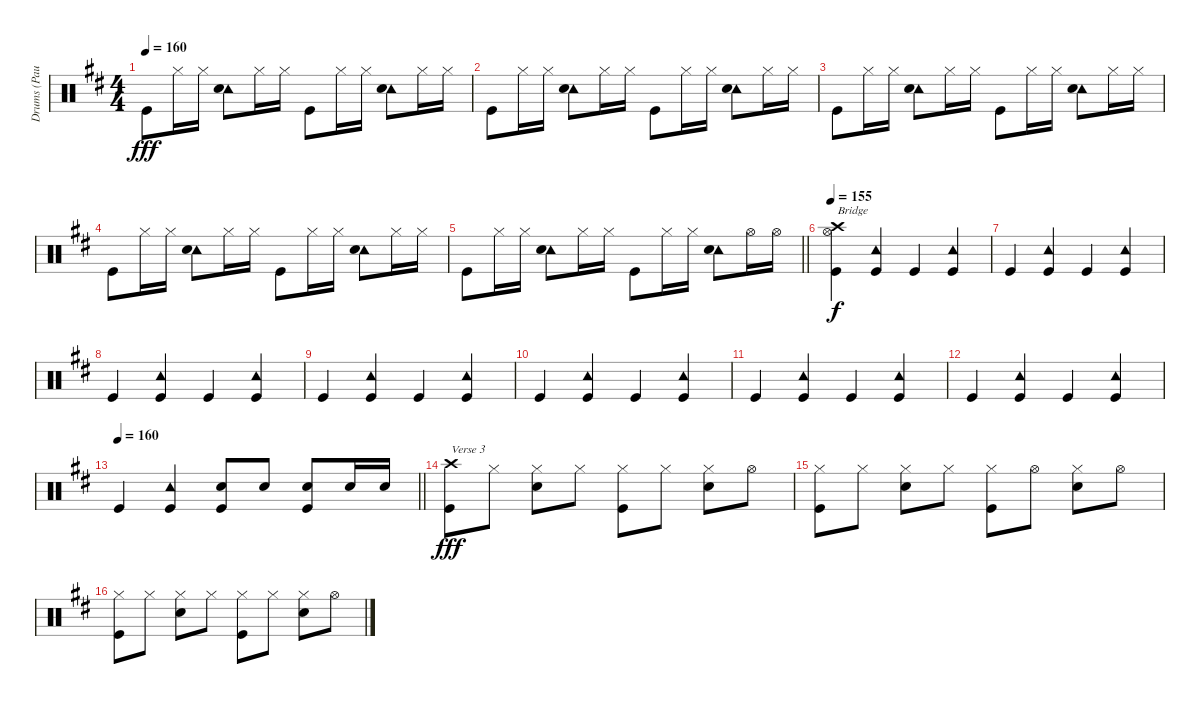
\track ("Drums (Paul)" "Drums (Pau") {instrument percussion}
\staff {score}
\articulation defaults
\ts (4 4)
\tempo 160
\clef neutral
\ks d "Kick (hit)".8{dy fff} "Hi-Hat (closed)".16 "Hi-Hat (closed)".16
("Tambourine (hit)" "Snare (hit) 2").8 "Hi-Hat (closed)".16 "Hi-Hat (closed)".16 "Kick (hit)".8 "Hi-Hat (closed)".16 "Hi-Hat (closed)".16 ("Tambourine (hit)" "Snare (hit) 2").8 "Hi-Hat (closed)".16 "Hi-Hat (closed)".16 |
"Kick (hit)".8 "Hi-Hat (closed)".16 "Hi-Hat (closed)".16 ("Tambourine (hit)" "Snare (hit) 2").8 "Hi-Hat (closed)".16 "Hi-Hat (closed)".16 "Kick (hit)".8 "Hi-Hat (closed)".16 "Hi-Hat (closed)".16 ("Tambourine (hit)" "Snare (hit) 2").8 "Hi-Hat (closed)".16 "Hi-Hat (closed)".16 |
"Kick (hit)".8 "Hi-Hat (closed)".16 "Hi-Hat (closed)".16 ("Tambourine (hit)" "Snare (hit) 2").8 "Hi-Hat (closed)".16 "Hi-Hat (closed)".16 "Kick (hit)".8 "Hi-Hat (closed)".16 "Hi-Hat (closed)".16 ("Tambourine (hit)" "Snare (hit) 2").8 "Hi-Hat (closed)".16 "Hi-Hat (closed)".16 |
"Kick (hit)".8 "Hi-Hat (closed)".16 "Hi-Hat (closed)".16 ("Tambourine (hit)" "Snare (hit) 2").8 "Hi-Hat (closed)".16 "Hi-Hat (closed)".16 "Kick (hit)".8 "Hi-Hat (closed)".16 "Hi-Hat (closed)".16 ("Tambourine (hit)" "Snare (hit) 2").8 "Hi-Hat (closed)".16 "Hi-Hat (closed)".16 |
\barLineRight lightlight "Kick (hit)".8 "Hi-Hat (closed)".16 "Hi-Hat (closed)".16
("Tambourine (hit)" "Snare (hit) 2").8 "Hi-Hat (closed)".16 "Hi-Hat (closed)".16 "Kick (hit)".8 "Hi-Hat (closed)".16 "Hi-Hat (closed)".16 ("Tambourine (hit)" "Snare (hit) 2").8 "Hi-Hat (open)".16 "Hi-Hat (open)".16 |
\tempo 155
("Crash high (hit)" "Hi-Hat (open)" "Kick (hit)").4{txt "Bridge" dy f} ("Tambourine (hit)" "Kick (hit)").4 "Kick (hit)".4 ("Tambourine (hit)" "Kick (hit)").4 |
"Kick (hit)".4 ("Tambourine (hit)" "Kick (hit)").4 "Kick (hit)".4 ("Tambourine (hit)" "Kick (hit)").4 |
"Kick (hit)".4 ("Tambourine (hit)" "Kick (hit)").4 "Kick (hit)".4 ("Tambourine (hit)" "Kick (hit)").4 |
"Kick (hit)".4 ("Tambourine (hit)" "Kick (hit)").4 "Kick (hit)".4 ("Tambourine (hit)" "Kick (hit)").4 |
"Kick (hit)".4 ("Tambourine (hit)" "Kick (hit)").4 "Kick (hit)".4 ("Tambourine (hit)" "Kick (hit)").4 |
"Kick (hit)".4 ("Tambourine (hit)" "Kick (hit)").4 "Kick (hit)".4 ("Tambourine (hit)" "Kick (hit)").4 |
"Kick (hit)".4 ("Tambourine (hit)" "Kick (hit)").4 "Kick (hit)".4 ("Tambourine (hit)" "Kick (hit)").4 |
\tempo 160
\barLineRight lightlight "Kick (hit)".4
("Tambourine (hit)" "Kick (hit)").4 ("Snare (hit) 2" "Kick (hit)").8 "Snare (hit) 2".8 ("Snare (hit) 2" "Kick (hit)").8 "Snare (hit) 2".16 "Snare (hit) 2".16 |
("Crash high (hit)" "Kick (hit)").8{txt "Verse 3" dy fff} "Hi-Hat (closed)".8 ("Hi-Hat (closed)" "Electric Snare (hit)").8 "Hi-Hat (closed)".8 ("Hi-Hat (closed)" "Kick (hit)").8 "Hi-Hat (closed)".8 ("Hi-Hat (closed)" "Electric Snare (hit)").8 "Hi-Hat (open)".8 |
("Hi-Hat (closed)" "Kick (hit)").8 "Hi-Hat (closed)".8 ("Hi-Hat (closed)" "Electric Snare (hit)").8 "Hi-Hat (closed)".8 ("Hi-Hat (closed)" "Kick (hit)").8 "Hi-Hat (open)".8 ("Hi-Hat (closed)" "Electric Snare (hit)").8 "Hi-Hat (open)".8 |
("Hi-Hat (closed)" "Kick (hit)").8 "Hi-Hat (closed)".8 ("Hi-Hat (closed)" "Electric Snare (hit)").8 "Hi-Hat (closed)".8 ("Hi-Hat (closed)" "Kick (hit)").8 "Hi-Hat (closed)".8 ("Hi-Hat (closed)" "Electric Snare (hit)").8 "Hi-Hat (open)".8
